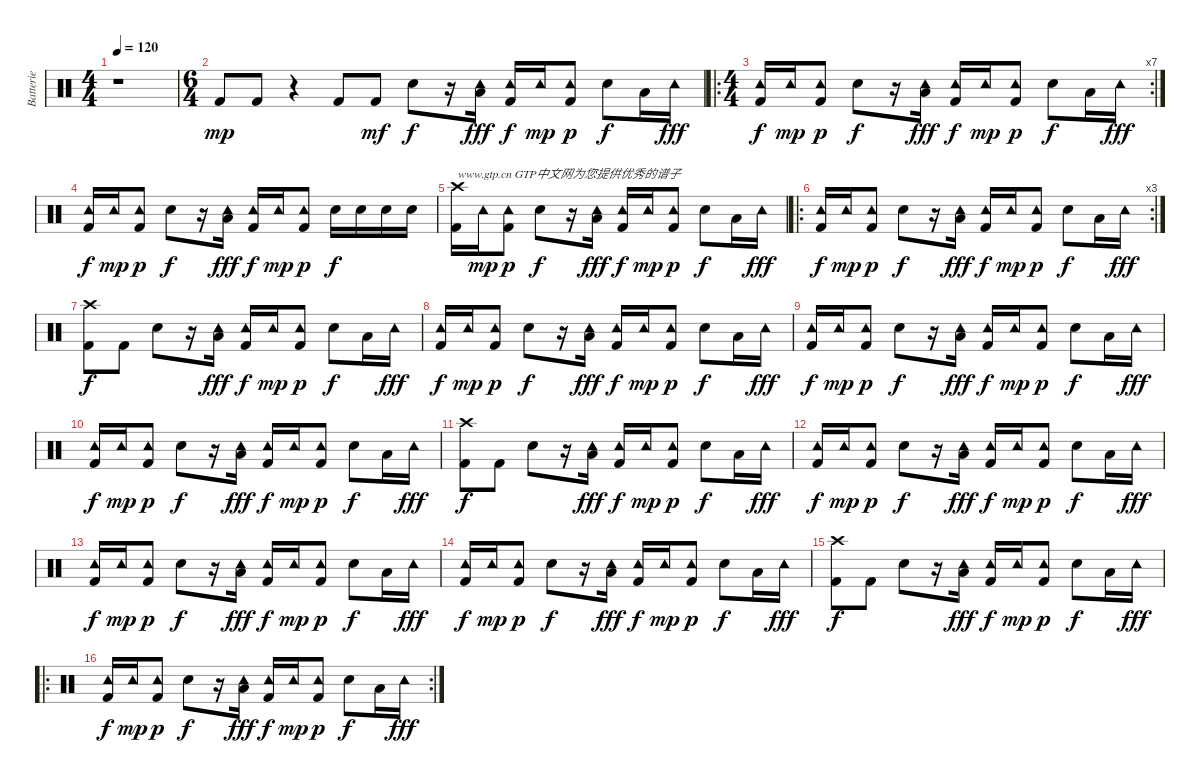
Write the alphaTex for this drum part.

\track ("Batterie" "Batterie") {instrument percussion}
\staff {score}
\articulation defaults
\ts (4 4)
\tempo 120
\clef neutral
\ks c
r.1{dy mp} |
\ts (6 4)
"Kick (hit) 2".8 "Kick (hit) 2".8 r.4 "Kick (hit) 2".8 "Kick (hit) 2".8{dy mf} "Electric Snare (hit)".8{dy f} r.16 ("Tambourine (hit)" "Low Tom (hit)").16{dy fff} ("Tambourine (hit)" "Kick (hit) 2").16{dy f} "Tambourine (hit)".16{dy mp} ("Tambourine (hit)" "Kick (hit) 2").8{dy p} "Electric Snare (hit)".8{dy f} "Low Tom (hit)".16 "Tambourine (hit)".16{dy fff} |
\ro
\rc 7
\ts (4 4)
("Tambourine (hit)" "Kick (hit) 2").16{dy f} "Tambourine (hit)".16{dy mp} ("Tambourine (hit)" "Kick (hit) 2").8{dy p} "Electric Snare (hit)".8{dy f} r.16 ("Tambourine (hit)" "Low Tom (hit)").16{dy fff} ("Tambourine (hit)" "Kick (hit) 2").16{dy f} "Tambourine (hit)".16{dy mp} ("Tambourine (hit)" "Kick (hit) 2").8{dy p} "Electric Snare (hit)".8{dy f} "Low Tom (hit)".16 "Tambourine (hit)".16{dy fff} |
("Tambourine (hit)" "Kick (hit) 2").16{dy f} "Tambourine (hit)".16{dy mp} ("Tambourine (hit)" "Kick (hit) 2").8{dy p} "Electric Snare (hit)".8{dy f} r.16 ("Tambourine (hit)" "Low Tom (hit)").16{dy fff} ("Tambourine (hit)" "Kick (hit) 2").16{dy f} "Tambourine (hit)".16{dy mp} ("Tambourine (hit)" "Kick (hit) 2").8{dy p} "Electric Snare (hit)".16{dy f} "Electric Snare (hit)".16 "Electric Snare (hit)".16 "Electric Snare (hit)".16 |
("Crash high (hit)" "Kick (hit) 2").16{txt "www.gtp.cn GTP中文网为您提供优秀的谱子"} "Tambourine (hit)".16{dy mp} ("Tambourine (hit)" "Kick (hit) 2").8{dy p} "Electric Snare (hit)".8{dy f} r.16 ("Tambourine (hit)" "Low Tom (hit)").16{dy fff} ("Tambourine (hit)" "Kick (hit) 2").16{dy f} "Tambourine (hit)".16{dy mp} ("Tambourine (hit)" "Kick (hit) 2").8{dy p} "Electric Snare (hit)".8{dy f} "Low Tom (hit)".16 "Tambourine (hit)".16{dy fff} |
\ro
\rc 3
("Tambourine (hit)" "Kick (hit) 2").16{dy f} "Tambourine (hit)".16{dy mp} ("Tambourine (hit)" "Kick (hit) 2").8{dy p} "Electric Snare (hit)".8{dy f} r.16 ("Tambourine (hit)" "Low Tom (hit)").16{dy fff} ("Tambourine (hit)" "Kick (hit) 2").16{dy f} "Tambourine (hit)".16{dy mp} ("Tambourine (hit)" "Kick (hit) 2").8{dy p} "Electric Snare (hit)".8{dy f} "Low Tom (hit)".16 "Tambourine (hit)".16{dy fff} |
("Crash high (hit)" "Kick (hit) 2").8{dy f} "Kick (hit) 2".8 "Electric Snare (hit)".8 r.16 ("Tambourine (hit)" "Low Tom (hit)").16{dy fff} ("Tambourine (hit)" "Kick (hit) 2").16{dy f} "Tambourine (hit)".16{dy mp} ("Tambourine (hit)" "Kick (hit) 2").8{dy p} "Electric Snare (hit)".8{dy f} "Low Tom (hit)".16 "Tambourine (hit)".16{dy fff} |
("Tambourine (hit)" "Kick (hit) 2").16{dy f} "Tambourine (hit)".16{dy mp} ("Tambourine (hit)" "Kick (hit) 2").8{dy p} "Electric Snare (hit)".8{dy f} r.16 ("Tambourine (hit)" "Low Tom (hit)").16{dy fff} ("Tambourine (hit)" "Kick (hit) 2").16{dy f} "Tambourine (hit)".16{dy mp} ("Tambourine (hit)" "Kick (hit) 2").8{dy p} "Electric Snare (hit)".8{dy f} "Low Tom (hit)".16 "Tambourine (hit)".16{dy fff} |
("Tambourine (hit)" "Kick (hit) 2").16{dy f} "Tambourine (hit)".16{dy mp} ("Tambourine (hit)" "Kick (hit) 2").8{dy p} "Electric Snare (hit)".8{dy f} r.16 ("Tambourine (hit)" "Low Tom (hit)").16{dy fff} ("Tambourine (hit)" "Kick (hit) 2").16{dy f} "Tambourine (hit)".16{dy mp} ("Tambourine (hit)" "Kick (hit) 2").8{dy p} "Electric Snare (hit)".8{dy f} "Low Tom (hit)".16 "Tambourine (hit)".16{dy fff} |
("Tambourine (hit)" "Kick (hit) 2").16{dy f} "Tambourine (hit)".16{dy mp} ("Tambourine (hit)" "Kick (hit) 2").8{dy p} "Electric Snare (hit)".8{dy f} r.16 ("Tambourine (hit)" "Low Tom (hit)").16{dy fff} ("Tambourine (hit)" "Kick (hit) 2").16{dy f} "Tambourine (hit)".16{dy mp} ("Tambourine (hit)" "Kick (hit) 2").8{dy p} "Electric Snare (hit)".8{dy f} "Low Tom (hit)".16 "Tambourine (hit)".16{dy fff} |
("Crash high (hit)" "Kick (hit) 2").8{dy f} "Kick (hit) 2".8 "Electric Snare (hit)".8 r.16 ("Tambourine (hit)" "Low Tom (hit)").16{dy fff} ("Tambourine (hit)" "Kick (hit) 2").16{dy f} "Tambourine (hit)".16{dy mp} ("Tambourine (hit)" "Kick (hit) 2").8{dy p} "Electric Snare (hit)".8{dy f} "Low Tom (hit)".16 "Tambourine (hit)".16{dy fff} |
("Tambourine (hit)" "Kick (hit) 2").16{dy f} "Tambourine (hit)".16{dy mp} ("Tambourine (hit)" "Kick (hit) 2").8{dy p} "Electric Snare (hit)".8{dy f} r.16 ("Tambourine (hit)" "Low Tom (hit)").16{dy fff} ("Tambourine (hit)" "Kick (hit) 2").16{dy f} "Tambourine (hit)".16{dy mp} ("Tambourine (hit)" "Kick (hit) 2").8{dy p} "Electric Snare (hit)".8{dy f} "Low Tom (hit)".16 "Tambourine (hit)".16{dy fff} |
("Tambourine (hit)" "Kick (hit) 2").16{dy f} "Tambourine (hit)".16{dy mp} ("Tambourine (hit)" "Kick (hit) 2").8{dy p} "Electric Snare (hit)".8{dy f} r.16 ("Tambourine (hit)" "Low Tom (hit)").16{dy fff} ("Tambourine (hit)" "Kick (hit) 2").16{dy f} "Tambourine (hit)".16{dy mp} ("Tambourine (hit)" "Kick (hit) 2").8{dy p} "Electric Snare (hit)".8{dy f} "Low Tom (hit)".16 "Tambourine (hit)".16{dy fff} |
("Tambourine (hit)" "Kick (hit) 2").16{dy f} "Tambourine (hit)".16{dy mp} ("Tambourine (hit)" "Kick (hit) 2").8{dy p} "Electric Snare (hit)".8{dy f} r.16 ("Tambourine (hit)" "Low Tom (hit)").16{dy fff} ("Tambourine (hit)" "Kick (hit) 2").16{dy f} "Tambourine (hit)".16{dy mp} ("Tambourine (hit)" "Kick (hit) 2").8{dy p} "Electric Snare (hit)".8{dy f} "Low Tom (hit)".16 "Tambourine (hit)".16{dy fff} |
("Crash high (hit)" "Kick (hit) 2").8{dy f} "Kick (hit) 2".8 "Electric Snare (hit)".8 r.16 ("Tambourine (hit)" "Low Tom (hit)").16{dy fff} ("Tambourine (hit)" "Kick (hit) 2").16{dy f} "Tambourine (hit)".16{dy mp} ("Tambourine (hit)" "Kick (hit) 2").8{dy p} "Electric Snare (hit)".8{dy f} "Low Tom (hit)".16 "Tambourine (hit)".16{dy fff} |
\ro
\rc 2
("Tambourine (hit)" "Kick (hit) 2").16{dy f} "Tambourine (hit)".16{dy mp} ("Tambourine (hit)" "Kick (hit) 2").8{dy p} "Electric Snare (hit)".8{dy f} r.16 ("Tambourine (hit)" "Low Tom (hit)").16{dy fff} ("Tambourine (hit)" "Kick (hit) 2").16{dy f} "Tambourine (hit)".16{dy mp} ("Tambourine (hit)" "Kick (hit) 2").8{dy p} "Electric Snare (hit)".8{dy f} "Low Tom (hit)".16 "Tambourine (hit)".16{dy fff}
